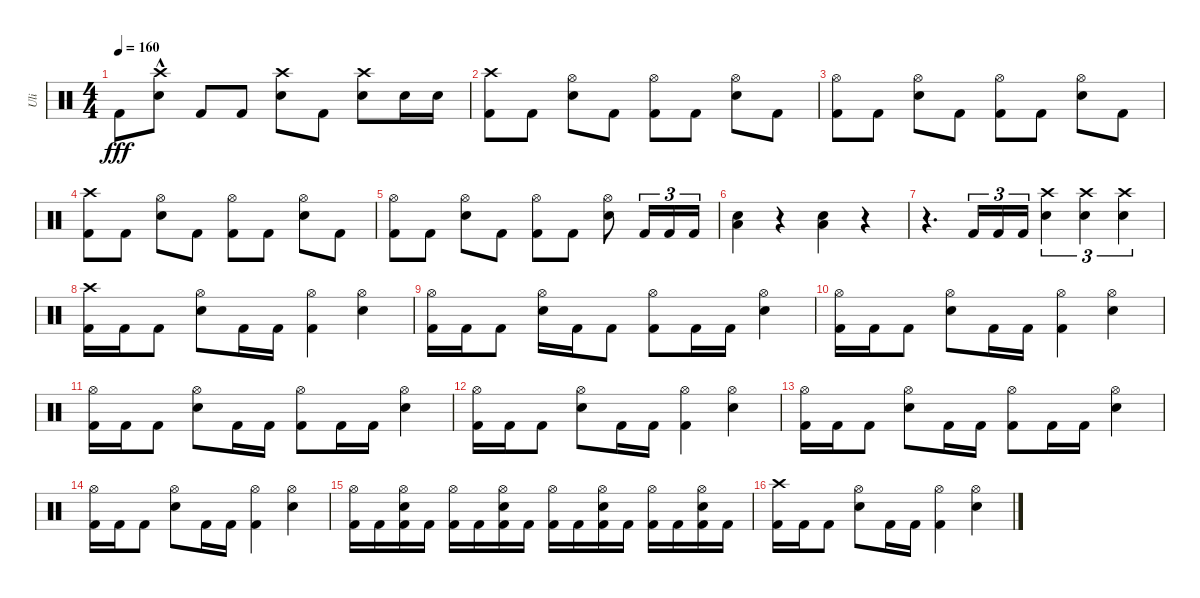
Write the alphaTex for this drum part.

\track ("Uli" "Uli") {instrument percussion}
\staff {score}
\articulation defaults
\ts (4 4)
\tempo 160
\clef neutral
\ks c "Kick (hit) 2".8{dy fff}
("Electric Snare (hit)"{hac} "Crash high (hit)"{hac}).8 "Kick (hit) 2".8 "Kick (hit) 2".8 ("Electric Snare (hit)" "Crash high (hit)").8 "Kick (hit) 2".8 ("Crash high (hit)" "Electric Snare (hit)").8 "Electric Snare (hit)".16 "Electric Snare (hit)".16 |
("Kick (hit) 2" "Crash high (hit)").8 "Kick (hit) 2".8 ("Electric Snare (hit)" "Hi-Hat (open)").8 "Kick (hit) 2".8 ("Kick (hit) 2" "Hi-Hat (open)").8 "Kick (hit) 2".8 ("Electric Snare (hit)" "Hi-Hat (open)").8 "Kick (hit) 2".8 |
("Kick (hit) 2" "Hi-Hat (open)").8 "Kick (hit) 2".8 ("Electric Snare (hit)" "Hi-Hat (open)").8 "Kick (hit) 2".8 ("Kick (hit) 2" "Hi-Hat (open)").8 "Kick (hit) 2".8 ("Electric Snare (hit)" "Hi-Hat (open)").8 "Kick (hit) 2".8 |
("Kick (hit) 2" "Crash high (hit)").8 "Kick (hit) 2".8 ("Electric Snare (hit)" "Hi-Hat (open)").8 "Kick (hit) 2".8 ("Kick (hit) 2" "Hi-Hat (open)").8 "Kick (hit) 2".8 ("Electric Snare (hit)" "Hi-Hat (open)").8 "Kick (hit) 2".8 |
("Kick (hit) 2" "Hi-Hat (open)").8 "Kick (hit) 2".8 ("Electric Snare (hit)" "Hi-Hat (open)").8 "Kick (hit) 2".8 ("Kick (hit) 2" "Hi-Hat (open)").8 "Kick (hit) 2".8 ("Electric Snare (hit)" "Hi-Hat (open)").8 "Kick (hit) 2".16{tu (3 2)} "Kick (hit) 2".16{tu (3 2)} "Kick (hit) 2".16{tu (3 2)} |
("Electric Snare (hit)" "Low Floor Tom (hit)").4 r.4 ("Electric Snare (hit)" "Low Floor Tom (hit)").4 r.4 |
r.4{d} "Kick (hit) 2".16{tu (3 2)} "Kick (hit) 2".16{tu (3 2)} "Kick (hit) 2".16{tu (3 2)} ("Electric Snare (hit)" "Crash high (hit)").4{tu (3 2)} ("Electric Snare (hit)" "Crash high (hit)").4{tu (3 2)} ("Electric Snare (hit)" "Crash high (hit)").4{tu (3 2)} |
("Crash high (hit)" "Kick (hit) 2").16 "Kick (hit) 2".16 "Kick (hit) 2".8 ("Electric Snare (hit)" "Hi-Hat (open)").8 "Kick (hit) 2".16 "Kick (hit) 2".16 ("Hi-Hat (open)" "Kick (hit) 2").4 ("Electric Snare (hit)" "Hi-Hat (open)").4 |
("Hi-Hat (open)" "Kick (hit) 2").16 "Kick (hit) 2".16 "Kick (hit) 2".8 ("Electric Snare (hit)" "Hi-Hat (open)").16 "Kick (hit) 2".16 "Kick (hit) 2".8 ("Kick (hit) 2" "Hi-Hat (open)").8 "Kick (hit) 2".16 "Kick (hit) 2".16 ("Electric Snare (hit)" "Hi-Hat (open)").4 |
("Kick (hit) 2" "Hi-Hat (open)").16 "Kick (hit) 2".16 "Kick (hit) 2".8 ("Electric Snare (hit)" "Hi-Hat (open)").8 "Kick (hit) 2".16 "Kick (hit) 2".16 ("Hi-Hat (open)" "Kick (hit) 2").4 ("Electric Snare (hit)" "Hi-Hat (open)").4 |
("Kick (hit) 2" "Hi-Hat (open)").16 "Kick (hit) 2".16 "Kick (hit) 2".8 ("Electric Snare (hit)" "Hi-Hat (open)").8 "Kick (hit) 2".16 "Kick (hit) 2".16 ("Hi-Hat (open)" "Kick (hit) 2").8 "Kick (hit) 2".16 "Kick (hit) 2".16 ("Electric Snare (hit)" "Hi-Hat (open)").4 |
("Kick (hit) 2" "Hi-Hat (open)").16 "Kick (hit) 2".16 "Kick (hit) 2".8 ("Electric Snare (hit)" "Hi-Hat (open)").8 "Kick (hit) 2".16 "Kick (hit) 2".16 ("Hi-Hat (open)" "Kick (hit) 2").4 ("Electric Snare (hit)" "Hi-Hat (open)").4 |
("Kick (hit) 2" "Hi-Hat (open)").16 "Kick (hit) 2".16 "Kick (hit) 2".8 ("Electric Snare (hit)" "Hi-Hat (open)").8 "Kick (hit) 2".16 "Kick (hit) 2".16 ("Hi-Hat (open)" "Kick (hit) 2").8 "Kick (hit) 2".16 "Kick (hit) 2".16 ("Electric Snare (hit)" "Hi-Hat (open)").4 |
("Kick (hit) 2" "Hi-Hat (open)").16 "Kick (hit) 2".16 "Kick (hit) 2".8 ("Electric Snare (hit)" "Hi-Hat (open)").8 "Kick (hit) 2".16 "Kick (hit) 2".16 ("Hi-Hat (open)" "Kick (hit) 2").4 ("Electric Snare (hit)" "Hi-Hat (open)").4 |
("Kick (hit) 2" "Hi-Hat (open)").16 "Kick (hit) 2".16 ("Kick (hit) 2" "Hi-Hat (open)" "Electric Snare (hit)").16 "Kick (hit) 2".16 ("Kick (hit) 2" "Hi-Hat (open)").16 "Kick (hit) 2".16 ("Kick (hit) 2" "Hi-Hat (open)" "Electric Snare (hit)").16 "Kick (hit) 2".16 ("Kick (hit) 2" "Hi-Hat (open)").16 "Kick (hit) 2".16 ("Kick (hit) 2" "Hi-Hat (open)" "Electric Snare (hit)").16 "Kick (hit) 2".16 ("Kick (hit) 2" "Hi-Hat (open)").16 "Kick (hit) 2".16 ("Kick (hit) 2" "Hi-Hat (open)" "Electric Snare (hit)").16 "Kick (hit) 2".16 |
("Crash high (hit)" "Kick (hit) 2").16 "Kick (hit) 2".16 "Kick (hit) 2".8 ("Electric Snare (hit)" "Hi-Hat (open)").8 "Kick (hit) 2".16 "Kick (hit) 2".16 ("Hi-Hat (open)" "Kick (hit) 2").4 ("Electric Snare (hit)" "Hi-Hat (open)").4
